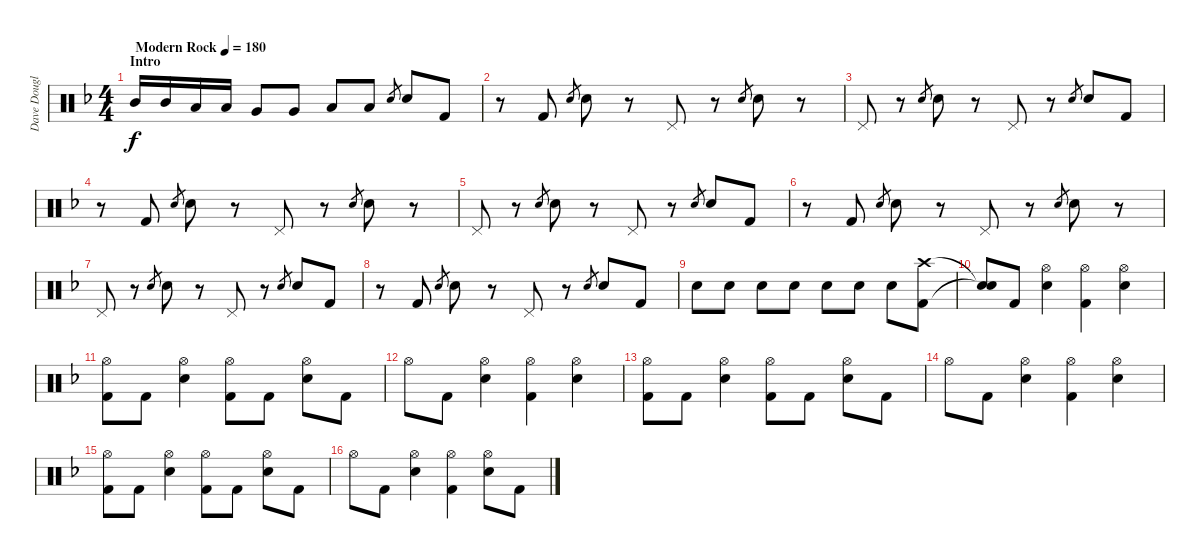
\track ("Dave Douglas (Drum)" "Dave Dougl") {instrument percussion}
\staff {score}
\articulation defaults
\ts (4 4)
\section ("" "Intro")
\tempo (180 "Modern Rock")
\clef neutral
\ks dminor "Mid Tom (hit)".16{dy f} "Mid Tom (hit)".16 "Low Tom (hit)".16 "Low Tom (hit)".16 "Very Low Tom (hit)".8 "Very Low Tom (hit)".8 "Low Floor Tom (hit)".8 "Low Floor Tom (hit)".8 "Snare (hit) 2".8{gr} "Snare (hit) 2".8 "Kick (hit) 2".8
|
r.8 "Kick (hit) 2".8 "Snare (hit) 2".8{gr} "Snare (hit) 2".8 r.8 "Pedal Hi-Hat (hit)".8 r.8 "Snare (hit) 2".8{gr} "Snare (hit) 2".8 r.8 |
"Pedal Hi-Hat (hit)".8 r.8 "Snare (hit) 2".8{gr} "Snare (hit) 2".8 r.8 "Pedal Hi-Hat (hit)".8 r.8 "Snare (hit) 2".8{gr} "Snare (hit) 2".8 "Kick (hit) 2".8 |
r.8 "Kick (hit) 2".8 "Snare (hit) 2".8{gr} "Snare (hit) 2".8 r.8 "Pedal Hi-Hat (hit)".8 r.8 "Snare (hit) 2".8{gr} "Snare (hit) 2".8 r.8 |
"Pedal Hi-Hat (hit)".8 r.8 "Snare (hit) 2".8{gr} "Snare (hit) 2".8 r.8 "Pedal Hi-Hat (hit)".8 r.8 "Snare (hit) 2".8{gr} "Snare (hit) 2".8 "Kick (hit) 2".8 |
r.8 "Kick (hit) 2".8 "Snare (hit) 2".8{gr} "Snare (hit) 2".8 r.8 "Pedal Hi-Hat (hit)".8 r.8 "Snare (hit) 2".8{gr} "Snare (hit) 2".8 r.8 |
"Pedal Hi-Hat (hit)".8 r.8 "Snare (hit) 2".8{gr} "Snare (hit) 2".8 r.8 "Pedal Hi-Hat (hit)".8 r.8 "Snare (hit) 2".8{gr} "Snare (hit) 2".8 "Kick (hit) 2".8 |
r.8 "Kick (hit) 2".8 "Snare (hit) 2".8{gr} "Snare (hit) 2".8 r.8 "Pedal Hi-Hat (hit)".8 r.8 "Snare (hit) 2".8{gr} "Snare (hit) 2".8 "Kick (hit) 2".8 |
"Snare (hit) 2".8 "Snare (hit) 2".8 "Snare (hit) 2".8 "Snare (hit) 2".8 "Snare (hit) 2".8 "Snare (hit) 2".8 "Snare (hit) 2".8 ("Crash high (hit)" "Kick (hit) 2").8 |
("Snare (hit)"{t} "Snare (hit)"{t}).8 "Kick (hit) 2".8 ("Hi-Hat (open)" "Snare (hit) 2").4 ("Hi-Hat (open)" "Kick (hit) 2").4 ("Hi-Hat (open)" "Snare (hit) 2").4 |
("Hi-Hat (open)" "Kick (hit) 2").8 "Kick (hit) 2".8 ("Hi-Hat (open)" "Snare (hit) 2").4 ("Hi-Hat (open)" "Kick (hit) 2").8 "Kick (hit) 2".8 ("Hi-Hat (open)" "Snare (hit) 2").8 "Kick (hit) 2".8 |
"Hi-Hat (open)".8 "Kick (hit) 2".8 ("Hi-Hat (open)" "Snare (hit) 2").4 ("Hi-Hat (open)" "Kick (hit) 2").4 ("Hi-Hat (open)" "Snare (hit) 2").4 |
("Hi-Hat (open)" "Kick (hit) 2").8 "Kick (hit) 2".8 ("Hi-Hat (open)" "Snare (hit) 2").4 ("Hi-Hat (open)" "Kick (hit) 2").8 "Kick (hit) 2".8 ("Hi-Hat (open)" "Snare (hit) 2").8 "Kick (hit) 2".8 |
"Hi-Hat (open)".8 "Kick (hit) 2".8 ("Hi-Hat (open)" "Snare (hit) 2").4 ("Hi-Hat (open)" "Kick (hit) 2").4 ("Hi-Hat (open)" "Snare (hit) 2").4 |
("Hi-Hat (open)" "Kick (hit) 2").8 "Kick (hit) 2".8 ("Hi-Hat (open)" "Snare (hit) 2").4 ("Hi-Hat (open)" "Kick (hit) 2").8 "Kick (hit) 2".8 ("Hi-Hat (open)" "Snare (hit) 2").8 "Kick (hit) 2".8 |
"Hi-Hat (open)".8 "Kick (hit) 2".8 ("Hi-Hat (open)" "Snare (hit) 2").4 ("Hi-Hat (open)" "Kick (hit) 2").4 ("Hi-Hat (open)" "Snare (hit) 2").8 "Kick (hit) 2".8
